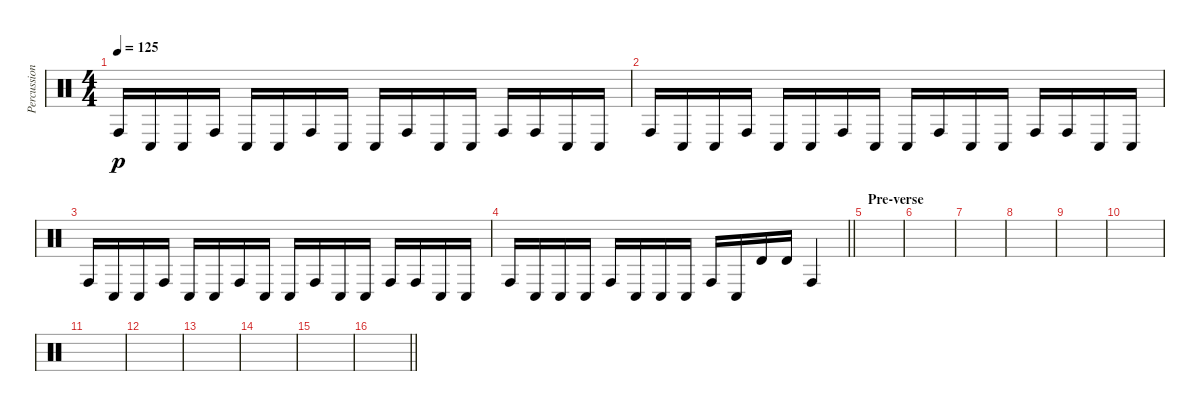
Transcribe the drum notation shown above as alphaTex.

\track ("Percussion" "Percussion") {instrument percussion}
\staff {score}
\articulation defaults
\ts (4 4)
\tempo 125
\clef neutral
\ks c "Conga high (hit)".16{dy p} "Conga low (hit)".16 "Conga low (hit)".16 "Conga high (hit)".16 "Conga low (hit)".16 "Conga low (hit)".16 "Conga high (hit)".16 "Conga low (hit)".16 "Conga low (hit)".16 "Conga high (hit)".16 "Conga low (hit)".16 "Conga low (hit)".16 "Conga high (hit)".16 "Conga high (hit)".16 "Conga low (hit)".16 "Conga low (hit)".16
|
"Conga high (hit)".16 "Conga low (hit)".16 "Conga low (hit)".16 "Conga high (hit)".16 "Conga low (hit)".16 "Conga low (hit)".16 "Conga high (hit)".16 "Conga low (hit)".16 "Conga low (hit)".16 "Conga high (hit)".16 "Conga low (hit)".16 "Conga low (hit)".16 "Conga high (hit)".16 "Conga high (hit)".16 "Conga low (hit)".16 "Conga low (hit)".16 |
"Conga high (hit)".16 "Conga low (hit)".16 "Conga low (hit)".16 "Conga high (hit)".16 "Conga low (hit)".16 "Conga low (hit)".16 "Conga high (hit)".16 "Conga low (hit)".16 "Conga low (hit)".16 "Conga high (hit)".16 "Conga low (hit)".16 "Conga low (hit)".16 "Conga high (hit)".16 "Conga high (hit)".16 "Conga low (hit)".16 "Conga low (hit)".16 |
\barLineRight lightlight "Conga high (hit)".16 "Conga low (hit)".16 "Conga low (hit)".16 "Conga low (hit)".16 "Conga high (hit)".16 "Conga low (hit)".16 "Conga low (hit)".16 "Conga low (hit)".16 "Conga high (hit)".16 "Conga low (hit)".16 "Timbale high (hit)".16 "Timbale high (hit)".16 "Conga high (hit)".4
|
\section ("" "Pre-verse")
|
|
|
|
|
|
|
|
|
|
|
\barLineRight lightlight
